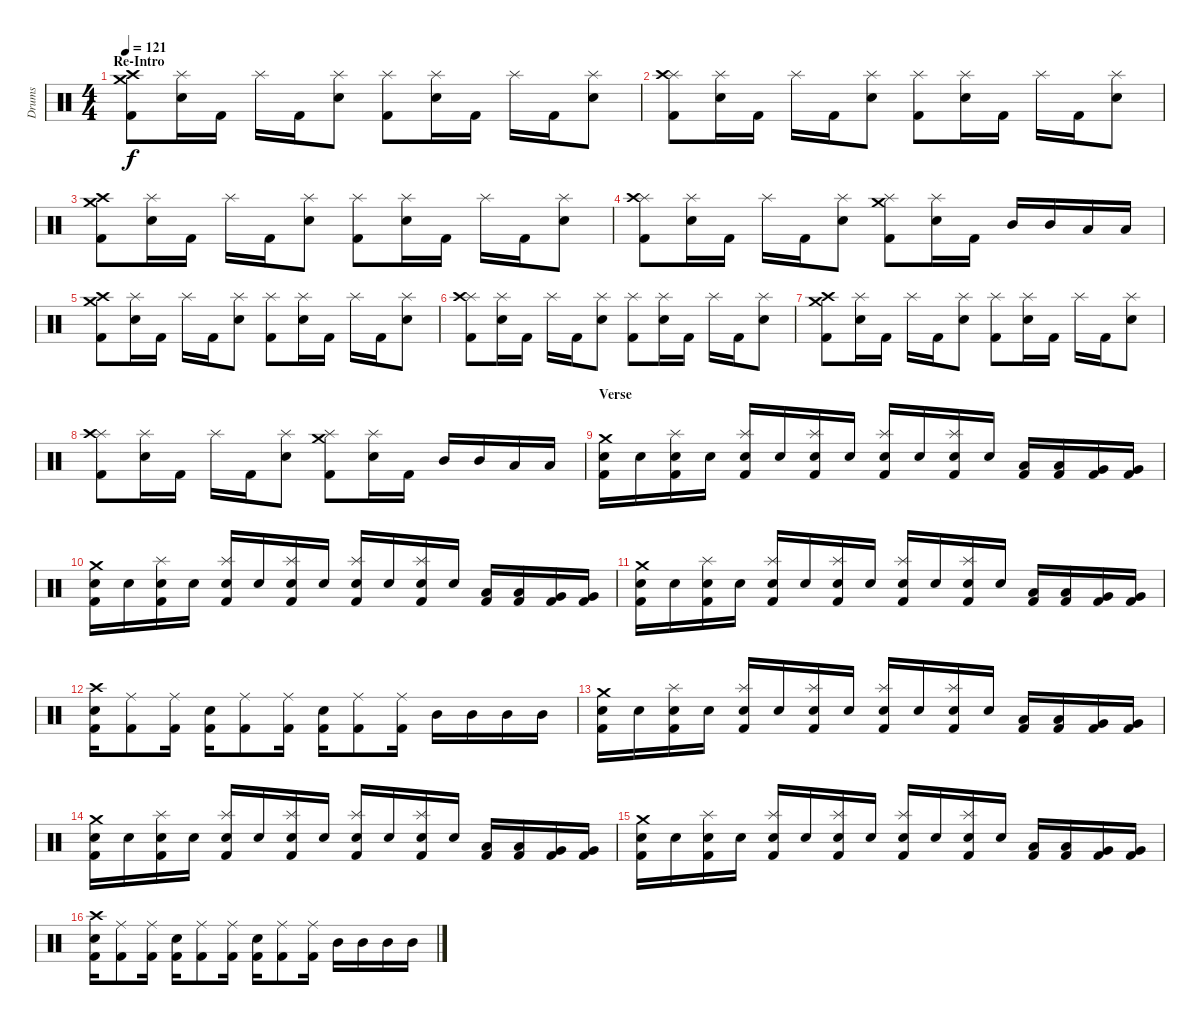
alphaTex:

\track ("Drums" "Drums") {instrument percussion}
\staff {score}
\articulation defaults
\ts (4 4)
\section ("" "Re-Intro")
\tempo 121
\clef neutral
\ks c
("Crash high (hit)" "Crash medium (hit)" "Kick (hit) 2").8{dy f} ("Splash (hit)" "Snare (hit) 2").16 "Kick (hit) 2".16 "Splash (hit)".16 "Kick (hit) 2".16 ("Splash (hit)" "Snare (hit) 2").8 ("Splash (hit)" "Kick (hit) 2").8 ("Splash (hit)" "Snare (hit) 2").16 "Kick (hit) 2".16 "Splash (hit)".16 "Kick (hit) 2".16 ("Splash (hit)" "Snare (hit) 2").8 |
("Splash (hit)" "Crash high (hit)" "Kick (hit) 2").8 ("Splash (hit)" "Snare (hit) 2").16 "Kick (hit) 2".16 "Splash (hit)".16 "Kick (hit) 2".16 ("Splash (hit)" "Snare (hit) 2").8 ("Splash (hit)" "Kick (hit) 2").8 ("Splash (hit)" "Snare (hit) 2").16 "Kick (hit) 2".16 "Splash (hit)".16 "Kick (hit) 2".16 ("Splash (hit)" "Snare (hit) 2").8 |
("Crash high (hit)" "Crash medium (hit)" "Kick (hit) 2").8 ("Splash (hit)" "Snare (hit) 2").16 "Kick (hit) 2".16 "Splash (hit)".16 "Kick (hit) 2".16 ("Splash (hit)" "Snare (hit) 2").8 ("Splash (hit)" "Kick (hit) 2").8 ("Splash (hit)" "Snare (hit) 2").16 "Kick (hit) 2".16 "Splash (hit)".16 "Kick (hit) 2".16 ("Splash (hit)" "Snare (hit) 2").8 |
("Splash (hit)" "Crash high (hit)" "Kick (hit) 2").8 ("Splash (hit)" "Snare (hit) 2").16 "Kick (hit) 2".16 "Splash (hit)".16 "Kick (hit) 2".16 ("Splash (hit)" "Snare (hit) 2").8 ("Splash (hit)" "Crash medium (hit)" "Kick (hit) 2").8 ("Splash (hit)" "Snare (hit) 2").16 "Kick (hit) 2".16 "Mid Tom (hit)".16 "Mid Tom (hit)".16 "Low Tom (hit)".16 "Low Tom (hit)".16 |
("Crash high (hit)" "Crash medium (hit)" "Kick (hit) 2").8 ("Splash (hit)" "Snare (hit) 2").16 "Kick (hit) 2".16 "Splash (hit)".16 "Kick (hit) 2".16 ("Splash (hit)" "Snare (hit) 2").8 ("Splash (hit)" "Kick (hit) 2").8 ("Splash (hit)" "Snare (hit) 2").16 "Kick (hit) 2".16 "Splash (hit)".16 "Kick (hit) 2".16 ("Splash (hit)" "Snare (hit) 2").8 |
("Splash (hit)" "Crash high (hit)" "Kick (hit) 2").8 ("Splash (hit)" "Snare (hit) 2").16 "Kick (hit) 2".16 "Splash (hit)".16 "Kick (hit) 2".16 ("Splash (hit)" "Snare (hit) 2").8 ("Splash (hit)" "Kick (hit) 2").8 ("Splash (hit)" "Snare (hit) 2").16 "Kick (hit) 2".16 "Splash (hit)".16 "Kick (hit) 2".16 ("Splash (hit)" "Snare (hit) 2").8 |
("Crash high (hit)" "Crash medium (hit)" "Kick (hit) 2").8 ("Splash (hit)" "Snare (hit) 2").16 "Kick (hit) 2".16 "Splash (hit)".16 "Kick (hit) 2".16 ("Splash (hit)" "Snare (hit) 2").8 ("Splash (hit)" "Kick (hit) 2").8 ("Splash (hit)" "Snare (hit) 2").16 "Kick (hit) 2".16 "Splash (hit)".16 "Kick (hit) 2".16 ("Splash (hit)" "Snare (hit) 2").8 |
("Splash (hit)" "Crash high (hit)" "Kick (hit) 2").8 ("Splash (hit)" "Snare (hit) 2").16 "Kick (hit) 2".16 "Splash (hit)".16 "Kick (hit) 2".16 ("Splash (hit)" "Snare (hit) 2").8 ("Splash (hit)" "Crash medium (hit)" "Kick (hit) 2").8 ("Splash (hit)" "Snare (hit) 2").16 "Kick (hit) 2".16 "Mid Tom (hit)".16 "Mid Tom (hit)".16 "Low Tom (hit)".16 "Low Tom (hit)".16 |
\section ("" "Verse")
("Crash medium (hit)" "Snare (hit) 2" "Kick (hit) 2").16 "Snare (hit) 2".16 ("Splash (hit)" "Snare (hit) 2" "Kick (hit) 2").16 "Snare (hit) 2".16 ("Splash (hit)" "Snare (hit) 2" "Kick (hit) 2").16 "Snare (hit) 2".16 ("Splash (hit)" "Snare (hit) 2" "Kick (hit) 2").16 "Snare (hit) 2".16 ("Splash (hit)" "Snare (hit) 2" "Kick (hit) 2").16 "Snare (hit) 2".16 ("Splash (hit)" "Snare (hit) 2" "Kick (hit) 2").16 "Snare (hit) 2".16 ("Low Tom (hit)" "Kick (hit) 2").16 ("Low Tom (hit)" "Kick (hit) 2").16 ("Very Low Tom (hit)" "Kick (hit) 2").16 ("Very Low Tom (hit)" "Kick (hit) 2").16 |
("Crash medium (hit)" "Snare (hit) 2" "Kick (hit) 2").16 "Snare (hit) 2".16 ("Splash (hit)" "Snare (hit) 2" "Kick (hit) 2").16 "Snare (hit) 2".16 ("Splash (hit)" "Snare (hit) 2" "Kick (hit) 2").16 "Snare (hit) 2".16 ("Splash (hit)" "Snare (hit) 2" "Kick (hit) 2").16 "Snare (hit) 2".16 ("Splash (hit)" "Snare (hit) 2" "Kick (hit) 2").16 "Snare (hit) 2".16 ("Splash (hit)" "Snare (hit) 2" "Kick (hit) 2").16 "Snare (hit) 2".16 ("Low Tom (hit)" "Kick (hit) 2").16 ("Low Tom (hit)" "Kick (hit) 2").16 ("Very Low Tom (hit)" "Kick (hit) 2").16 ("Very Low Tom (hit)" "Kick (hit) 2").16 |
("Crash medium (hit)" "Snare (hit) 2" "Kick (hit) 2").16 "Snare (hit) 2".16 ("Splash (hit)" "Snare (hit) 2" "Kick (hit) 2").16 "Snare (hit) 2".16 ("Splash (hit)" "Snare (hit) 2" "Kick (hit) 2").16 "Snare (hit) 2".16 ("Splash (hit)" "Snare (hit) 2" "Kick (hit) 2").16 "Snare (hit) 2".16 ("Splash (hit)" "Snare (hit) 2" "Kick (hit) 2").16 "Snare (hit) 2".16 ("Splash (hit)" "Snare (hit) 2" "Kick (hit) 2").16 "Snare (hit) 2".16 ("Low Tom (hit)" "Kick (hit) 2").16 ("Low Tom (hit)" "Kick (hit) 2").16 ("Very Low Tom (hit)" "Kick (hit) 2").16 ("Very Low Tom (hit)" "Kick (hit) 2").16 |
("Crash high (hit)" "Snare (hit) 2" "Kick (hit) 2").16 ("Ride (middle)" "Kick (hit) 2").8 ("Ride (middle)" "Kick (hit) 2").16 ("Snare (hit) 2" "Kick (hit) 2").16 ("Ride (middle)" "Kick (hit) 2").8 ("Ride (middle)" "Kick (hit) 2").16 ("Snare (hit) 2" "Kick (hit) 2").16 ("Ride (middle)" "Kick (hit) 2").8 ("Ride (middle)" "Kick (hit) 2").16 "Mid Tom (hit)".16 "Mid Tom (hit)".16 "Mid Tom (hit)".16 "Mid Tom (hit)".16 |
("Crash medium (hit)" "Snare (hit) 2" "Kick (hit) 2").16 "Snare (hit) 2".16 ("Splash (hit)" "Snare (hit) 2" "Kick (hit) 2").16 "Snare (hit) 2".16 ("Splash (hit)" "Snare (hit) 2" "Kick (hit) 2").16 "Snare (hit) 2".16 ("Splash (hit)" "Snare (hit) 2" "Kick (hit) 2").16 "Snare (hit) 2".16 ("Splash (hit)" "Snare (hit) 2" "Kick (hit) 2").16 "Snare (hit) 2".16 ("Splash (hit)" "Snare (hit) 2" "Kick (hit) 2").16 "Snare (hit) 2".16 ("Low Tom (hit)" "Kick (hit) 2").16 ("Low Tom (hit)" "Kick (hit) 2").16 ("Very Low Tom (hit)" "Kick (hit) 2").16 ("Very Low Tom (hit)" "Kick (hit) 2").16 |
("Crash medium (hit)" "Snare (hit) 2" "Kick (hit) 2").16 "Snare (hit) 2".16 ("Splash (hit)" "Snare (hit) 2" "Kick (hit) 2").16 "Snare (hit) 2".16 ("Splash (hit)" "Snare (hit) 2" "Kick (hit) 2").16 "Snare (hit) 2".16 ("Splash (hit)" "Snare (hit) 2" "Kick (hit) 2").16 "Snare (hit) 2".16 ("Splash (hit)" "Snare (hit) 2" "Kick (hit) 2").16 "Snare (hit) 2".16 ("Splash (hit)" "Snare (hit) 2" "Kick (hit) 2").16 "Snare (hit) 2".16 ("Low Tom (hit)" "Kick (hit) 2").16 ("Low Tom (hit)" "Kick (hit) 2").16 ("Very Low Tom (hit)" "Kick (hit) 2").16 ("Very Low Tom (hit)" "Kick (hit) 2").16 |
("Crash medium (hit)" "Snare (hit) 2" "Kick (hit) 2").16 "Snare (hit) 2".16 ("Splash (hit)" "Snare (hit) 2" "Kick (hit) 2").16 "Snare (hit) 2".16 ("Splash (hit)" "Snare (hit) 2" "Kick (hit) 2").16 "Snare (hit) 2".16 ("Splash (hit)" "Snare (hit) 2" "Kick (hit) 2").16 "Snare (hit) 2".16 ("Splash (hit)" "Snare (hit) 2" "Kick (hit) 2").16 "Snare (hit) 2".16 ("Splash (hit)" "Snare (hit) 2" "Kick (hit) 2").16 "Snare (hit) 2".16 ("Low Tom (hit)" "Kick (hit) 2").16 ("Low Tom (hit)" "Kick (hit) 2").16 ("Very Low Tom (hit)" "Kick (hit) 2").16 ("Very Low Tom (hit)" "Kick (hit) 2").16 |
("Crash high (hit)" "Snare (hit) 2" "Kick (hit) 2").16 ("Ride (middle)" "Kick (hit) 2").8 ("Ride (middle)" "Kick (hit) 2").16 ("Snare (hit) 2" "Kick (hit) 2").16 ("Ride (middle)" "Kick (hit) 2").8 ("Ride (middle)" "Kick (hit) 2").16 ("Snare (hit) 2" "Kick (hit) 2").16 ("Ride (middle)" "Kick (hit) 2").8 ("Ride (middle)" "Kick (hit) 2").16 "Mid Tom (hit)".16 "Mid Tom (hit)".16 "Mid Tom (hit)".16 "Mid Tom (hit)".16
